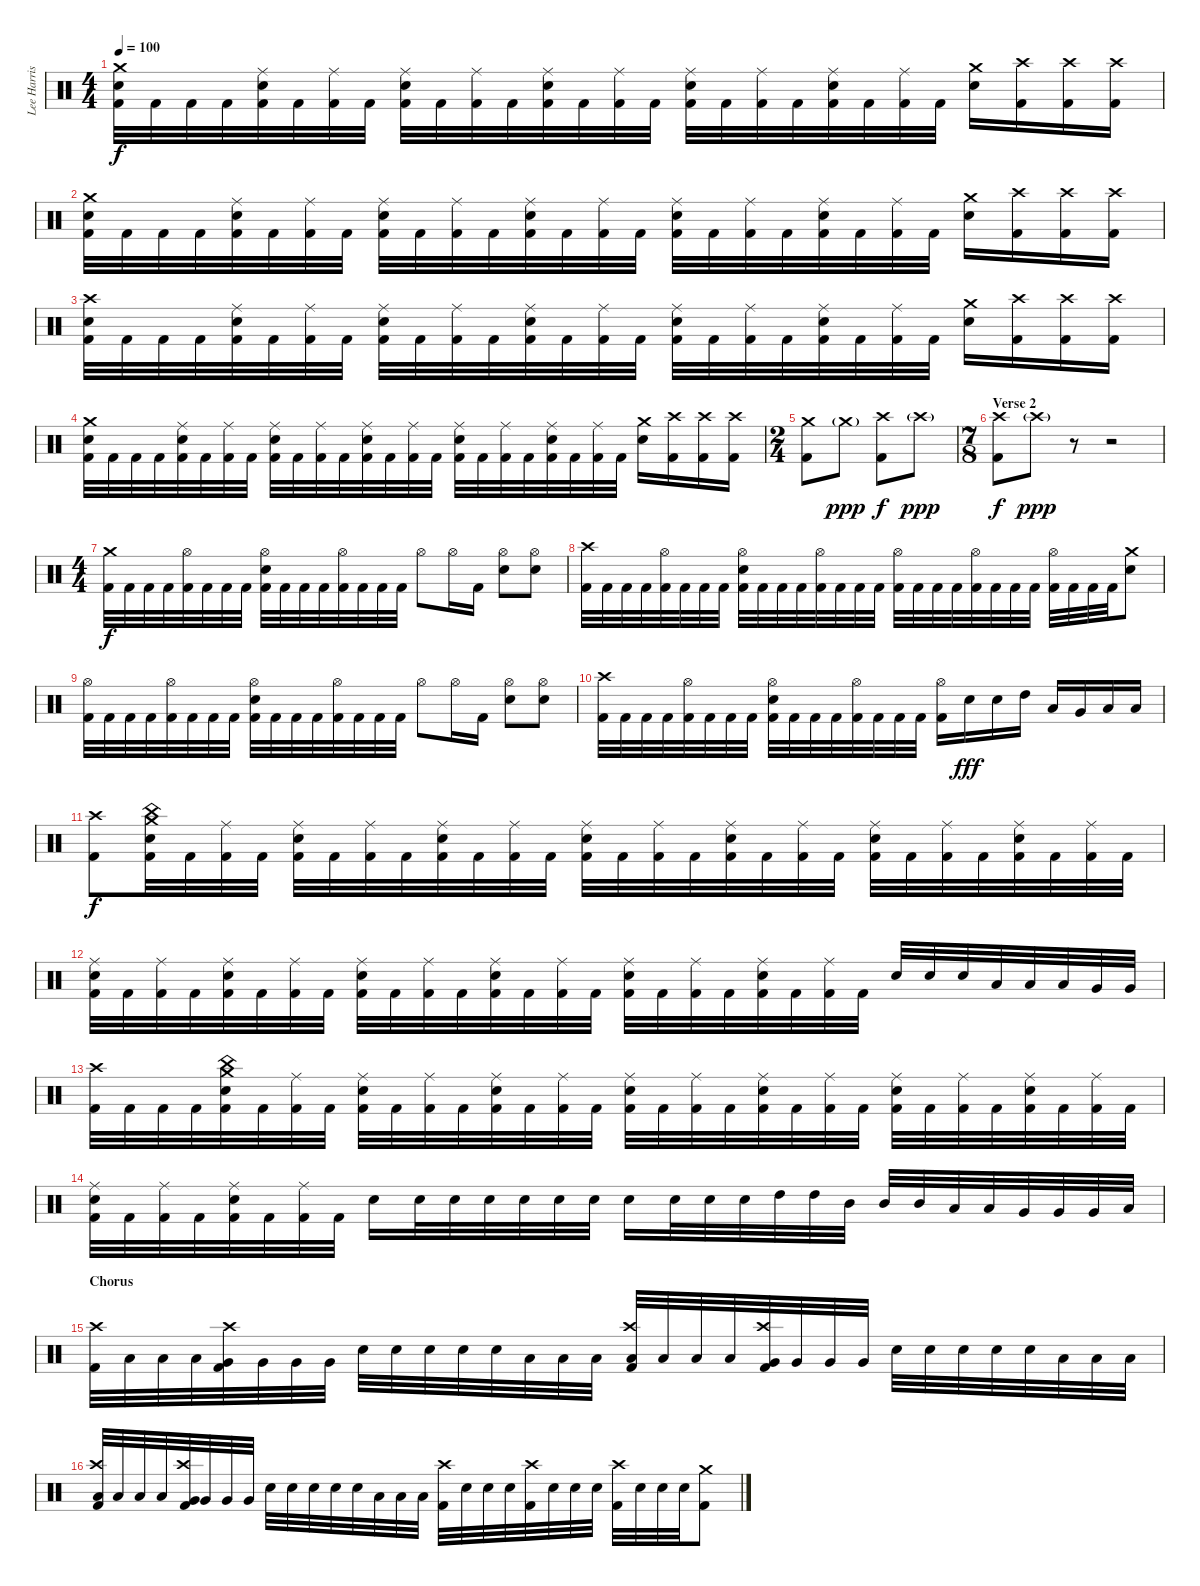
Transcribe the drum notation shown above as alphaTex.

\track ("Lee Harrison" "Lee Harris") {instrument percussion}
\staff {score}
\articulation defaults
\ts (4 4)
\tempo 100
\clef neutral
\ks c
("Crash medium (hit)" "Electric Snare (hit)" "Kick (hit) 2").32{dy f} "Kick (hit) 2".32 "Kick (hit) 2".32 "Kick (hit) 2".32 ("Ride (middle)" "Electric Snare (hit)" "Kick (hit) 2").32 "Kick (hit) 2".32 ("Ride (middle)" "Kick (hit) 2").32 "Kick (hit) 2".32 ("Ride (middle)" "Electric Snare (hit)" "Kick (hit) 2").32 "Kick (hit) 2".32 ("Ride (middle)" "Kick (hit) 2").32 "Kick (hit) 2".32 ("Ride (middle)" "Electric Snare (hit)" "Kick (hit) 2").32 "Kick (hit) 2".32 ("Ride (middle)" "Kick (hit) 2").32 "Kick (hit) 2".32 ("Ride (middle)" "Electric Snare (hit)" "Kick (hit) 2").32 "Kick (hit) 2".32 ("Ride (middle)" "Kick (hit) 2").32 "Kick (hit) 2".32 ("Ride (middle)" "Electric Snare (hit)" "Kick (hit) 2").32 "Kick (hit) 2".32 ("Ride (middle)" "Kick (hit) 2").32 "Kick (hit) 2".32 ("Crash medium (hit)" "Electric Snare (hit)").16 ("Crash high (hit)" "Kick (hit) 2").16 ("Crash high (hit)" "Kick (hit) 2").16 ("Crash high (hit)" "Kick (hit) 2").16 |
("Crash medium (hit)" "Electric Snare (hit)" "Kick (hit) 2").32 "Kick (hit) 2".32 "Kick (hit) 2".32 "Kick (hit) 2".32 ("Ride (middle)" "Electric Snare (hit)" "Kick (hit) 2").32 "Kick (hit) 2".32 ("Ride (middle)" "Kick (hit) 2").32 "Kick (hit) 2".32 ("Ride (middle)" "Electric Snare (hit)" "Kick (hit) 2").32 "Kick (hit) 2".32 ("Ride (middle)" "Kick (hit) 2").32 "Kick (hit) 2".32 ("Ride (middle)" "Electric Snare (hit)" "Kick (hit) 2").32 "Kick (hit) 2".32 ("Ride (middle)" "Kick (hit) 2").32 "Kick (hit) 2".32 ("Ride (middle)" "Electric Snare (hit)" "Kick (hit) 2").32 "Kick (hit) 2".32 ("Ride (middle)" "Kick (hit) 2").32 "Kick (hit) 2".32 ("Ride (middle)" "Electric Snare (hit)" "Kick (hit) 2").32 "Kick (hit) 2".32 ("Ride (middle)" "Kick (hit) 2").32 "Kick (hit) 2".32 ("Crash medium (hit)" "Electric Snare (hit)").16 ("Crash high (hit)" "Kick (hit) 2").16 ("Crash high (hit)" "Kick (hit) 2").16 ("Crash high (hit)" "Kick (hit) 2").16 |
("Crash high (hit)" "Electric Snare (hit)" "Kick (hit) 2").32 "Kick (hit) 2".32 "Kick (hit) 2".32 "Kick (hit) 2".32 ("Ride (middle)" "Electric Snare (hit)" "Kick (hit) 2").32 "Kick (hit) 2".32 ("Ride (middle)" "Kick (hit) 2").32 "Kick (hit) 2".32 ("Ride (middle)" "Electric Snare (hit)" "Kick (hit) 2").32 "Kick (hit) 2".32 ("Ride (middle)" "Kick (hit) 2").32 "Kick (hit) 2".32 ("Ride (middle)" "Electric Snare (hit)" "Kick (hit) 2").32 "Kick (hit) 2".32 ("Ride (middle)" "Kick (hit) 2").32 "Kick (hit) 2".32 ("Ride (middle)" "Electric Snare (hit)" "Kick (hit) 2").32 "Kick (hit) 2".32 ("Ride (middle)" "Kick (hit) 2").32 "Kick (hit) 2".32 ("Ride (middle)" "Electric Snare (hit)" "Kick (hit) 2").32 "Kick (hit) 2".32 ("Ride (middle)" "Kick (hit) 2").32 "Kick (hit) 2".32 ("Crash medium (hit)" "Electric Snare (hit)").16 ("Crash high (hit)" "Kick (hit) 2").16 ("Crash high (hit)" "Kick (hit) 2").16 ("Crash high (hit)" "Kick (hit) 2").16 |
("Crash medium (hit)" "Electric Snare (hit)" "Kick (hit) 2").32 "Kick (hit) 2".32 "Kick (hit) 2".32 "Kick (hit) 2".32 ("Ride (middle)" "Electric Snare (hit)" "Kick (hit) 2").32 "Kick (hit) 2".32 ("Ride (middle)" "Kick (hit) 2").32 "Kick (hit) 2".32 ("Ride (middle)" "Electric Snare (hit)" "Kick (hit) 2").32 "Kick (hit) 2".32 ("Ride (middle)" "Kick (hit) 2").32 "Kick (hit) 2".32 ("Ride (middle)" "Electric Snare (hit)" "Kick (hit) 2").32 "Kick (hit) 2".32 ("Ride (middle)" "Kick (hit) 2").32 "Kick (hit) 2".32 ("Ride (middle)" "Electric Snare (hit)" "Kick (hit) 2").32 "Kick (hit) 2".32 ("Ride (middle)" "Kick (hit) 2").32 "Kick (hit) 2".32 ("Ride (middle)" "Electric Snare (hit)" "Kick (hit) 2").32 "Kick (hit) 2".32 ("Ride (middle)" "Kick (hit) 2").32 "Kick (hit) 2".32 ("Crash medium (hit)" "Electric Snare (hit)").16 ("Crash high (hit)" "Kick (hit) 2").16 ("Crash high (hit)" "Kick (hit) 2").16 ("Crash high (hit)" "Kick (hit) 2").16 |
\ts (2 4)
("Crash medium (hit)" "Kick (hit) 2").8 "Crash medium (hit)"{g}.8{dy ppp volume 0} ("Crash high (hit)" "Kick (hit) 2").8{dy f volume 14} "Crash high (hit)"{g}.8{dy ppp volume 0} |
\ts (7 8)
\section ("" "Verse 2")
("Crash high (hit)" "Kick (hit) 2").8{dy f volume 14} "Crash high (hit)"{g}.8{dy ppp} r.8{volume 0} r.2 |
\ts (4 4)
("Crash medium (hit)" "Kick (hit) 2").32{dy f volume 14} "Kick (hit) 2".32 "Kick (hit) 2".32 "Kick (hit) 2".32 ("Hi-Hat (open)" "Kick (hit) 2").32 "Kick (hit) 2".32 "Kick (hit) 2".32 "Kick (hit) 2".32 ("Hi-Hat (open)" "Electric Snare (hit)" "Kick (hit) 2").32 "Kick (hit) 2".32 "Kick (hit) 2".32 "Kick (hit) 2".32 ("Hi-Hat (open)" "Kick (hit) 2").32 "Kick (hit) 2".32 "Kick (hit) 2".32 "Kick (hit) 2".32 "Hi-Hat (open)".8 "Hi-Hat (open)".16 "Kick (hit) 2".16 ("Hi-Hat (open)" "Electric Snare (hit)").8 ("Hi-Hat (open)" "Electric Snare (hit)").8 |
("Crash high (hit)" "Kick (hit) 2").32 "Kick (hit) 2".32 "Kick (hit) 2".32 "Kick (hit) 2".32 ("Hi-Hat (open)" "Kick (hit) 2").32 "Kick (hit) 2".32 "Kick (hit) 2".32 "Kick (hit) 2".32 ("Hi-Hat (open)" "Electric Snare (hit)" "Kick (hit) 2").32 "Kick (hit) 2".32 "Kick (hit) 2".32 "Kick (hit) 2".32 ("Hi-Hat (open)" "Kick (hit) 2").32 "Kick (hit) 2".32 "Kick (hit) 2".32 "Kick (hit) 2".32 ("Hi-Hat (open)" "Kick (hit) 2").32 "Kick (hit) 2".32 "Kick (hit) 2".32 "Kick (hit) 2".32 ("Hi-Hat (open)" "Kick (hit) 2").32 "Kick (hit) 2".32 "Kick (hit) 2".32 "Kick (hit) 2".32 ("Hi-Hat (open)" "Kick (hit) 2").32 "Kick (hit) 2".32 "Kick (hit) 2".32 "Kick (hit) 2".32 ("Crash medium (hit)" "Electric Snare (hit)").8 |
("Hi-Hat (open)" "Kick (hit) 2").32 "Kick (hit) 2".32 "Kick (hit) 2".32 "Kick (hit) 2".32 ("Hi-Hat (open)" "Kick (hit) 2").32 "Kick (hit) 2".32 "Kick (hit) 2".32 "Kick (hit) 2".32 ("Hi-Hat (open)" "Electric Snare (hit)" "Kick (hit) 2").32 "Kick (hit) 2".32 "Kick (hit) 2".32 "Kick (hit) 2".32 ("Hi-Hat (open)" "Kick (hit) 2").32 "Kick (hit) 2".32 "Kick (hit) 2".32 "Kick (hit) 2".32 "Hi-Hat (open)".8 "Hi-Hat (open)".16 "Kick (hit) 2".16 ("Hi-Hat (open)" "Electric Snare (hit)").8 ("Hi-Hat (open)" "Electric Snare (hit)").8 |
("Crash high (hit)" "Kick (hit) 2").32 "Kick (hit) 2".32 "Kick (hit) 2".32 "Kick (hit) 2".32 ("Hi-Hat (open)" "Kick (hit) 2").32 "Kick (hit) 2".32 "Kick (hit) 2".32 "Kick (hit) 2".32 ("Hi-Hat (open)" "Electric Snare (hit)" "Kick (hit) 2").32 "Kick (hit) 2".32 "Kick (hit) 2".32 "Kick (hit) 2".32 ("Hi-Hat (open)" "Kick (hit) 2").32 "Kick (hit) 2".32 "Kick (hit) 2".32 "Kick (hit) 2".32 ("Hi-Hat (open)" "Kick (hit) 2").16 "Electric Snare (hit)".16{dy fff} "Electric Snare (hit)".16 "High Tom (hit)".16 "Low Tom (hit)".16 "Very Low Tom (hit)".16 "Low Floor Tom (hit)".16 "Low Floor Tom (hit)".16 |
("Crash high (hit)" "Kick (hit) 2").8{dy f} ("Crash medium (hit)" "China (hit)" "Electric Snare (hit)" "Kick (hit) 2").32 "Kick (hit) 2".32 ("Ride (middle)" "Kick (hit) 2").32 "Kick (hit) 2".32 ("Ride (middle)" "Electric Snare (hit)" "Kick (hit) 2").32 "Kick (hit) 2".32 ("Ride (middle)" "Kick (hit) 2").32 "Kick (hit) 2".32 ("Ride (middle)" "Electric Snare (hit)" "Kick (hit) 2").32 "Kick (hit) 2".32 ("Ride (middle)" "Kick (hit) 2").32 "Kick (hit) 2".32 ("Ride (middle)" "Electric Snare (hit)" "Kick (hit) 2").32 "Kick (hit) 2".32 ("Ride (middle)" "Kick (hit) 2").32 "Kick (hit) 2".32 ("Ride (middle)" "Electric Snare (hit)" "Kick (hit) 2").32 "Kick (hit) 2".32 ("Ride (middle)" "Kick (hit) 2").32 "Kick (hit) 2".32 ("Ride (middle)" "Electric Snare (hit)" "Kick (hit) 2").32 "Kick (hit) 2".32 ("Ride (middle)" "Kick (hit) 2").32 "Kick (hit) 2".32 ("Ride (middle)" "Electric Snare (hit)" "Kick (hit) 2").32 "Kick (hit) 2".32 ("Ride (middle)" "Kick (hit) 2").32 "Kick (hit) 2".32 |
("Ride (middle)" "Electric Snare (hit)" "Kick (hit) 2").32 "Kick (hit) 2".32 ("Ride (middle)" "Kick (hit) 2").32 "Kick (hit) 2".32 ("Ride (middle)" "Electric Snare (hit)" "Kick (hit) 2").32 "Kick (hit) 2".32 ("Ride (middle)" "Kick (hit) 2").32 "Kick (hit) 2".32 ("Ride (middle)" "Electric Snare (hit)" "Kick (hit) 2").32 "Kick (hit) 2".32 ("Ride (middle)" "Kick (hit) 2").32 "Kick (hit) 2".32 ("Ride (middle)" "Electric Snare (hit)" "Kick (hit) 2").32 "Kick (hit) 2".32 ("Ride (middle)" "Kick (hit) 2").32 "Kick (hit) 2".32 ("Ride (middle)" "Electric Snare (hit)" "Kick (hit) 2").32 "Kick (hit) 2".32 ("Ride (middle)" "Kick (hit) 2").32 "Kick (hit) 2".32 ("Ride (middle)" "Electric Snare (hit)" "Kick (hit) 2").32 "Kick (hit) 2".32 ("Ride (middle)" "Kick (hit) 2").32 "Kick (hit) 2".32 "Electric Snare (hit)".32 "Electric Snare (hit)".32 "Electric Snare (hit)".32 "Low Tom (hit)".32 "Low Tom (hit)".32 "Low Tom (hit)".32 "Very Low Tom (hit)".32 "Very Low Tom (hit)".32 |
("Crash high (hit)" "Kick (hit) 2").32 "Kick (hit) 2".32 "Kick (hit) 2".32 "Kick (hit) 2".32 ("Crash medium (hit)" "China (hit)" "Electric Snare (hit)" "Kick (hit) 2").32 "Kick (hit) 2".32 ("Ride (middle)" "Kick (hit) 2").32 "Kick (hit) 2".32 ("Ride (middle)" "Electric Snare (hit)" "Kick (hit) 2").32 "Kick (hit) 2".32 ("Ride (middle)" "Kick (hit) 2").32 "Kick (hit) 2".32 ("Ride (middle)" "Electric Snare (hit)" "Kick (hit) 2").32 "Kick (hit) 2".32 ("Ride (middle)" "Kick (hit) 2").32 "Kick (hit) 2".32 ("Ride (middle)" "Electric Snare (hit)" "Kick (hit) 2").32 "Kick (hit) 2".32 ("Ride (middle)" "Kick (hit) 2").32 "Kick (hit) 2".32 ("Ride (middle)" "Electric Snare (hit)" "Kick (hit) 2").32 "Kick (hit) 2".32 ("Ride (middle)" "Kick (hit) 2").32 "Kick (hit) 2".32 ("Ride (middle)" "Electric Snare (hit)" "Kick (hit) 2").32 "Kick (hit) 2".32 ("Ride (middle)" "Kick (hit) 2").32 "Kick (hit) 2".32 ("Ride (middle)" "Electric Snare (hit)" "Kick (hit) 2").32 "Kick (hit) 2".32 ("Ride (middle)" "Kick (hit) 2").32 "Kick (hit) 2".32 |
("Ride (middle)" "Electric Snare (hit)" "Kick (hit) 2").32 "Kick (hit) 2".32 ("Ride (middle)" "Kick (hit) 2").32 "Kick (hit) 2".32 ("Ride (middle)" "Electric Snare (hit)" "Kick (hit) 2").32 "Kick (hit) 2".32 ("Ride (middle)" "Kick (hit) 2").32 "Kick (hit) 2".32 "Electric Snare (hit)".16 "Electric Snare (hit)".32 "Electric Snare (hit)".32 "Electric Snare (hit)".32 "Electric Snare (hit)".32 "Electric Snare (hit)".32 "Electric Snare (hit)".32 "Electric Snare (hit)".16 "Electric Snare (hit)".32 "Electric Snare (hit)".32 "Electric Snare (hit)".32 "High Tom (hit)".32 "High Tom (hit)".32 "Mid Tom (hit)".32 "Mid Tom (hit)".32 "Mid Tom (hit)".32 "Low Tom (hit)".32 "Low Tom (hit)".32 "Very Low Tom (hit)".32 "Very Low Tom (hit)".32 "Very Low Tom (hit)".32 "Low Floor Tom (hit)".32 |
\section ("" "Chorus")
("Crash high (hit)" "Kick (hit) 2").32 "Low Tom (hit)".32 "Low Tom (hit)".32 "Low Tom (hit)".32 ("Crash high (hit)" "Very Low Tom (hit)" "Kick (hit) 2").32 "Very Low Tom (hit)".32 "Very Low Tom (hit)".32 "Very Low Tom (hit)".32 "Electric Snare (hit)".32 "Electric Snare (hit)".32 "Electric Snare (hit)".32 "Electric Snare (hit)".32 "Electric Snare (hit)".32 "Low Floor Tom (hit)".32 "Low Floor Tom (hit)".32 "Low Floor Tom (hit)".32 ("Crash high (hit)" "Low Tom (hit)" "Kick (hit) 2").32 "Low Tom (hit)".32 "Low Tom (hit)".32 "Low Tom (hit)".32 ("Crash high (hit)" "Very Low Tom (hit)" "Kick (hit) 2").32 "Very Low Tom (hit)".32 "Very Low Tom (hit)".32 "Very Low Tom (hit)".32 "Electric Snare (hit)".32 "Electric Snare (hit)".32 "Electric Snare (hit)".32 "Electric Snare (hit)".32 "Electric Snare (hit)".32 "Low Floor Tom (hit)".32 "Low Floor Tom (hit)".32 "Low Floor Tom (hit)".32 |
("Crash high (hit)" "Low Tom (hit)" "Kick (hit) 2").32 "Low Tom (hit)".32 "Low Tom (hit)".32 "Low Tom (hit)".32 ("Crash high (hit)" "Very Low Tom (hit)" "Kick (hit) 2").32 "Very Low Tom (hit)".32 "Very Low Tom (hit)".32 "Very Low Tom (hit)".32 "Electric Snare (hit)".32 "Electric Snare (hit)".32 "Electric Snare (hit)".32 "Electric Snare (hit)".32 "Electric Snare (hit)".32 "Low Floor Tom (hit)".32 "Low Floor Tom (hit)".32 "Low Floor Tom (hit)".32 ("Crash high (hit)" "Kick (hit) 2").32 "Electric Snare (hit)".32 "Electric Snare (hit)".32 "Electric Snare (hit)".32 ("Crash high (hit)" "Kick (hit) 2").32 "Electric Snare (hit)".32 "Electric Snare (hit)".32 "Electric Snare (hit)".32 ("Crash high (hit)" "Kick (hit) 2").32 "Electric Snare (hit)".32 "Electric Snare (hit)".32 "Electric Snare (hit)".32 ("Crash medium (hit)" "Kick (hit) 2").8
